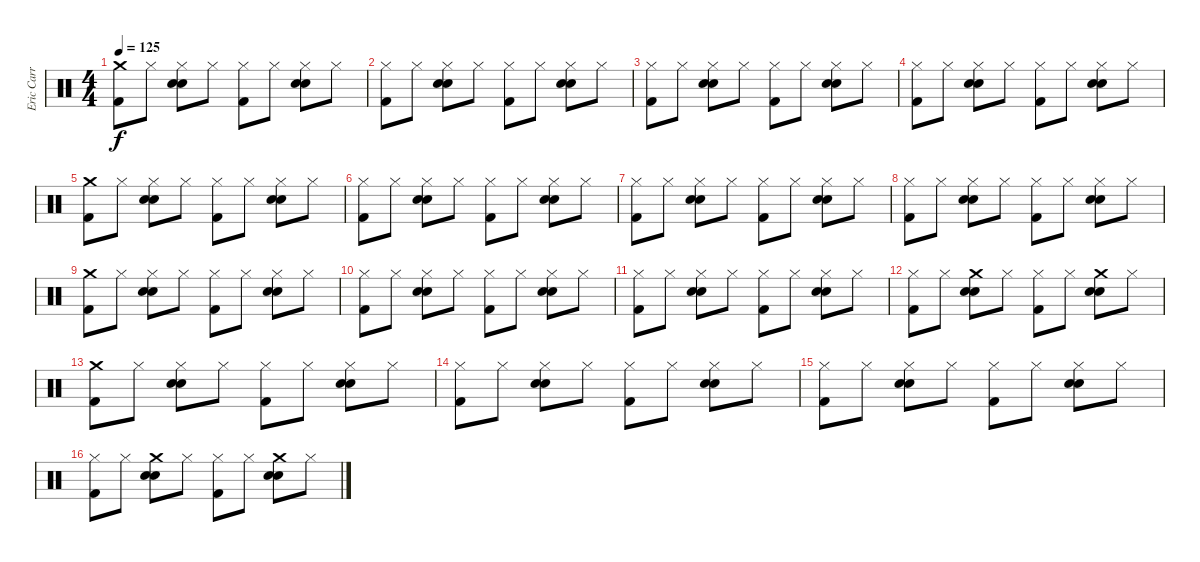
\track ("Eric Carr" "Eric Carr") {instrument percussion}
\staff {score}
\articulation defaults
\ts (4 4)
\tempo 125
\clef neutral
\ks c
("Crash medium (hit)" "Kick (hit) 2").8{dy f} "Hi-Hat (closed)".8 ("Hi-Hat (closed)" "Electric Snare (hit)" "Snare (hit) 2").8 "Hi-Hat (closed)".8 ("Hi-Hat (closed)" "Kick (hit) 2").8 "Hi-Hat (closed)".8 ("Hi-Hat (closed)" "Snare (hit) 2" "Electric Snare (hit)").8 "Hi-Hat (closed)".8 |
("Hi-Hat (closed)" "Kick (hit) 2").8 "Hi-Hat (closed)".8 ("Hi-Hat (closed)" "Electric Snare (hit)" "Snare (hit) 2").8 "Hi-Hat (closed)".8 ("Hi-Hat (closed)" "Kick (hit) 2").8 "Hi-Hat (closed)".8 ("Hi-Hat (closed)" "Snare (hit) 2" "Electric Snare (hit)").8 "Hi-Hat (closed)".8 |
("Hi-Hat (closed)" "Kick (hit) 2").8 "Hi-Hat (closed)".8 ("Hi-Hat (closed)" "Electric Snare (hit)" "Snare (hit) 2").8 "Hi-Hat (closed)".8 ("Hi-Hat (closed)" "Kick (hit) 2").8 "Hi-Hat (closed)".8 ("Hi-Hat (closed)" "Snare (hit) 2" "Electric Snare (hit)").8 "Hi-Hat (closed)".8 |
("Hi-Hat (closed)" "Kick (hit) 2").8 "Hi-Hat (closed)".8 ("Hi-Hat (closed)" "Electric Snare (hit)" "Snare (hit) 2").8 "Hi-Hat (closed)".8 ("Hi-Hat (closed)" "Kick (hit) 2").8 "Hi-Hat (closed)".8 ("Hi-Hat (closed)" "Snare (hit) 2" "Electric Snare (hit)").8 "Hi-Hat (closed)".8 |
("Crash medium (hit)" "Kick (hit) 2").8 "Hi-Hat (closed)".8 ("Hi-Hat (closed)" "Electric Snare (hit)" "Snare (hit) 2").8 "Hi-Hat (closed)".8 ("Hi-Hat (closed)" "Kick (hit) 2").8 "Hi-Hat (closed)".8 ("Hi-Hat (closed)" "Snare (hit) 2" "Electric Snare (hit)").8 "Hi-Hat (closed)".8 |
("Hi-Hat (closed)" "Kick (hit) 2").8 "Hi-Hat (closed)".8 ("Hi-Hat (closed)" "Electric Snare (hit)" "Snare (hit) 2").8 "Hi-Hat (closed)".8 ("Hi-Hat (closed)" "Kick (hit) 2").8 "Hi-Hat (closed)".8 ("Hi-Hat (closed)" "Snare (hit) 2" "Electric Snare (hit)").8 "Hi-Hat (closed)".8 |
("Hi-Hat (closed)" "Kick (hit) 2").8 "Hi-Hat (closed)".8 ("Hi-Hat (closed)" "Electric Snare (hit)" "Snare (hit) 2").8 "Hi-Hat (closed)".8 ("Hi-Hat (closed)" "Kick (hit) 2").8 "Hi-Hat (closed)".8 ("Hi-Hat (closed)" "Snare (hit) 2" "Electric Snare (hit)").8 "Hi-Hat (closed)".8 |
("Hi-Hat (closed)" "Kick (hit) 2").8 "Hi-Hat (closed)".8 ("Hi-Hat (closed)" "Electric Snare (hit)" "Snare (hit) 2").8 "Hi-Hat (closed)".8 ("Hi-Hat (closed)" "Kick (hit) 2").8 "Hi-Hat (closed)".8 ("Hi-Hat (closed)" "Snare (hit) 2" "Electric Snare (hit)").8 "Hi-Hat (closed)".8 |
("Crash medium (hit)" "Kick (hit) 2").8 "Hi-Hat (closed)".8 ("Hi-Hat (closed)" "Electric Snare (hit)" "Snare (hit) 2").8 "Hi-Hat (closed)".8 ("Hi-Hat (closed)" "Kick (hit) 2").8 "Hi-Hat (closed)".8 ("Hi-Hat (closed)" "Snare (hit) 2" "Electric Snare (hit)").8 "Hi-Hat (closed)".8 |
("Hi-Hat (closed)" "Kick (hit) 2").8 "Hi-Hat (closed)".8 ("Hi-Hat (closed)" "Electric Snare (hit)" "Snare (hit) 2").8 "Hi-Hat (closed)".8 ("Hi-Hat (closed)" "Kick (hit) 2").8 "Hi-Hat (closed)".8 ("Hi-Hat (closed)" "Snare (hit) 2" "Electric Snare (hit)").8 "Hi-Hat (closed)".8 |
("Hi-Hat (closed)" "Kick (hit) 2").8 "Hi-Hat (closed)".8 ("Hi-Hat (closed)" "Electric Snare (hit)" "Snare (hit) 2").8 "Hi-Hat (closed)".8 ("Hi-Hat (closed)" "Kick (hit) 2").8 "Hi-Hat (closed)".8 ("Hi-Hat (closed)" "Snare (hit) 2" "Electric Snare (hit)").8 "Hi-Hat (closed)".8 |
("Hi-Hat (closed)" "Kick (hit) 2").8 "Hi-Hat (closed)".8 ("Crash medium (hit)" "Electric Snare (hit)" "Snare (hit) 2").8 "Hi-Hat (closed)".8 ("Hi-Hat (closed)" "Kick (hit) 2").8 "Hi-Hat (closed)".8 ("Crash medium (hit)" "Snare (hit) 2" "Electric Snare (hit)").8 "Hi-Hat (closed)".8 |
("Crash medium (hit)" "Kick (hit) 2").8 "Hi-Hat (closed)".8 ("Hi-Hat (closed)" "Electric Snare (hit)" "Snare (hit) 2").8 "Hi-Hat (closed)".8 ("Hi-Hat (closed)" "Kick (hit) 2").8 "Hi-Hat (closed)".8 ("Hi-Hat (closed)" "Snare (hit) 2" "Electric Snare (hit)").8 "Hi-Hat (closed)".8 |
("Hi-Hat (closed)" "Kick (hit) 2").8 "Hi-Hat (closed)".8 ("Hi-Hat (closed)" "Electric Snare (hit)" "Snare (hit) 2").8 "Hi-Hat (closed)".8 ("Hi-Hat (closed)" "Kick (hit) 2").8 "Hi-Hat (closed)".8 ("Hi-Hat (closed)" "Snare (hit) 2" "Electric Snare (hit)").8 "Hi-Hat (closed)".8 |
("Hi-Hat (closed)" "Kick (hit) 2").8 "Hi-Hat (closed)".8 ("Hi-Hat (closed)" "Electric Snare (hit)" "Snare (hit) 2").8 "Hi-Hat (closed)".8 ("Hi-Hat (closed)" "Kick (hit) 2").8 "Hi-Hat (closed)".8 ("Hi-Hat (closed)" "Snare (hit) 2" "Electric Snare (hit)").8 "Hi-Hat (closed)".8 |
("Hi-Hat (closed)" "Kick (hit) 2").8 "Hi-Hat (closed)".8 ("Crash medium (hit)" "Electric Snare (hit)" "Snare (hit) 2").8 "Hi-Hat (closed)".8 ("Hi-Hat (closed)" "Kick (hit) 2").8 "Hi-Hat (closed)".8 ("Crash medium (hit)" "Snare (hit) 2" "Electric Snare (hit)").8 "Hi-Hat (closed)".8
